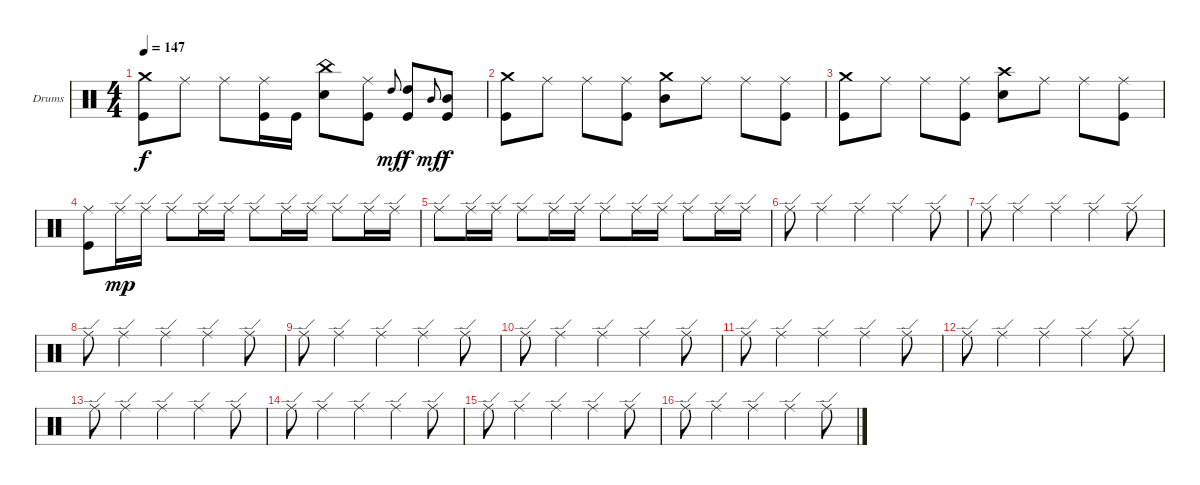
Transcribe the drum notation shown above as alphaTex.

\bracketExtendMode groupsimilarinstruments
\firstSystemTrackNameOrientation horizontal
\otherSystemsTrackNameOrientation horizontal
\track ("Ударные" "Drums") {instrument percussion}
\staff {score}
\articulation defaults
\ts (4 4)
\tempo 147
\clef neutral
\ks c
("Crash medium (hit)" "Kick (hit)").8{dy f} "Ride (middle)".8 "Ride (middle)".8 ("Ride (middle)" "Kick (hit)").16 "Kick (hit)".16 ("China (hit)" "Snare (hit) 2").8 ("Ride (middle)" "Kick (hit)").8 "High Tom (hit)".8{gr onbeat dy mf} ("High Tom (hit)" "Kick (hit)").8{dy f} "Mid Tom (hit)".8{gr onbeat dy mf} ("Mid Tom (hit)" "Kick (hit)").8{dy f} |
("Crash medium (hit)" "Kick (hit)").8 "Ride (middle)".8 "Ride (middle)".8 ("Ride (middle)" "Kick (hit)").8 ("Crash medium (hit)" "Mid Tom (hit)").8 "Ride (middle)".8 "Ride (middle)".8 ("Ride (middle)" "Kick (hit)").8 |
("Crash medium (hit)" "Kick (hit)").8 "Ride (middle)".8 "Ride (middle)".8 ("Ride (middle)" "Kick (hit)").8 ("Crash high (hit)" "Snare (hit) 2").8 "Ride (middle)".8 "Ride (middle)".8 ("Ride (middle)" "Kick (hit)").8 |
("Ride (middle)" "Kick (hit)").8 "Ride (edge)".16{dy mp} "Ride (edge)".16 "Ride (edge)".8 "Ride (edge)".16 "Ride (edge)".16 "Ride (edge)".8 "Ride (edge)".16 "Ride (edge)".16 "Ride (edge)".8 "Ride (edge)".16 "Ride (edge)".16 |
"Ride (edge)".8 "Ride (edge)".16 "Ride (edge)".16 "Ride (edge)".8 "Ride (edge)".16 "Ride (edge)".16 "Ride (edge)".8 "Ride (edge)".16 "Ride (edge)".16 "Ride (edge)".8 "Ride (edge)".16 "Ride (edge)".16 |
"Ride (edge)".8 "Ride (edge)".4 "Ride (edge)".4 "Ride (edge)".4 "Ride (edge)".8 |
"Ride (edge)".8 "Ride (edge)".4 "Ride (edge)".4 "Ride (edge)".4 "Ride (edge)".8 |
"Ride (edge)".8 "Ride (edge)".4 "Ride (edge)".4 "Ride (edge)".4 "Ride (edge)".8 |
"Ride (edge)".8 "Ride (edge)".4 "Ride (edge)".4 "Ride (edge)".4 "Ride (edge)".8 |
"Ride (edge)".8 "Ride (edge)".4 "Ride (edge)".4 "Ride (edge)".4 "Ride (edge)".8 |
"Ride (edge)".8 "Ride (edge)".4 "Ride (edge)".4 "Ride (edge)".4 "Ride (edge)".8 |
"Ride (edge)".8 "Ride (edge)".4 "Ride (edge)".4 "Ride (edge)".4 "Ride (edge)".8 |
"Ride (edge)".8 "Ride (edge)".4 "Ride (edge)".4 "Ride (edge)".4 "Ride (edge)".8 |
"Ride (edge)".8 "Ride (edge)".4 "Ride (edge)".4 "Ride (edge)".4 "Ride (edge)".8 |
"Ride (edge)".8 "Ride (edge)".4 "Ride (edge)".4 "Ride (edge)".4 "Ride (edge)".8 |
"Ride (edge)".8 "Ride (edge)".4 "Ride (edge)".4 "Ride (edge)".4 "Ride (edge)".8
